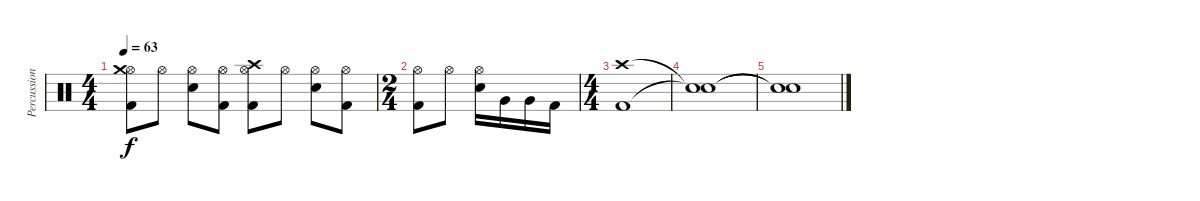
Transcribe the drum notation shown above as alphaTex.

\track ("Percussion" "Percussion") {instrument percussion}
\staff {score}
\articulation defaults
\ts (4 4)
\tempo 63
\clef neutral
\ks c
("Hi-Hat (open)" "Crash medium (hit)" "Kick (hit) 2").8{dy f} "Hi-Hat (open)".8 ("Hi-Hat (open)" "Electric Snare (hit)").8 ("Hi-Hat (open)" "Kick (hit) 2").8 ("Hi-Hat (open)" "Crash high (hit)" "Kick (hit) 2").8 "Hi-Hat (open)".8 ("Hi-Hat (open)" "Electric Snare (hit)").8 ("Hi-Hat (open)" "Kick (hit) 2").8 |
\ts (2 4)
("Hi-Hat (open)" "Kick (hit) 2").8 "Hi-Hat (open)".8 ("Hi-Hat (open)" "Electric Snare (hit)").16 "Very Low Tom (hit)".16 "Very Low Tom (hit)".16 "Kick (hit) 2".16 |
\ts (4 4)
("Crash high (hit)" "Kick (hit) 2").1 |
("Snare (hit)"{t} "Snare (hit)"{t}).1 |
("Snare (hit)"{t} "Snare (hit)"{t}).1
